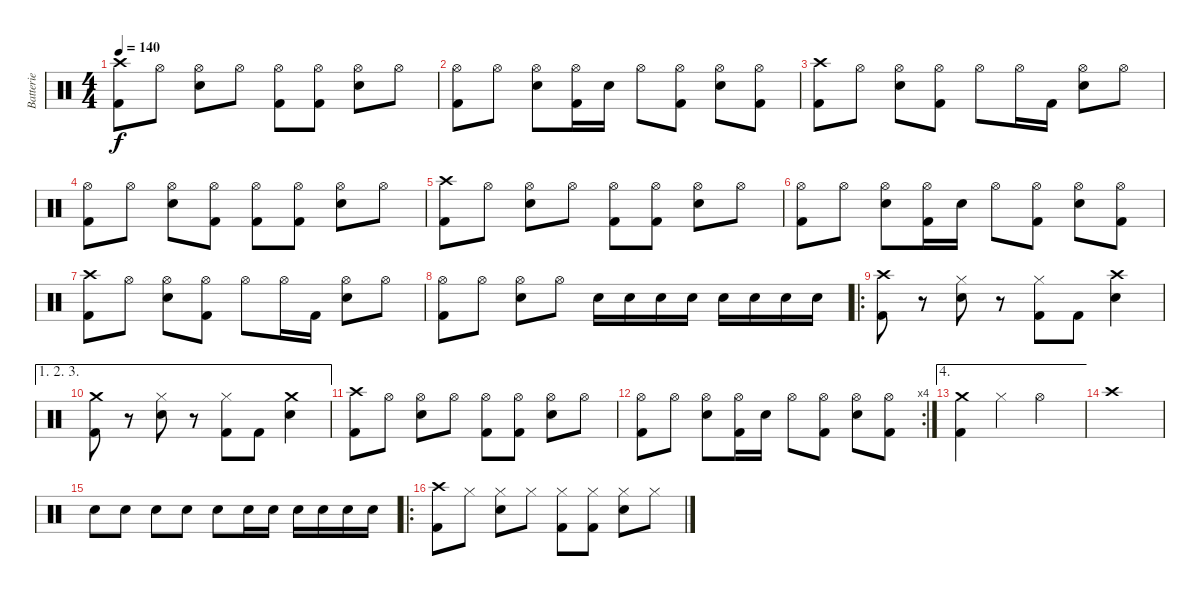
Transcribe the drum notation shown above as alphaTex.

\track ("Batterie" "Batterie") {instrument percussion}
\staff {score}
\articulation defaults
\ts (4 4)
\tempo 140
\clef neutral
\ks c
("Crash high (hit)" "Kick (hit) 2").8{dy f} "Hi-Hat (open)".8 ("Hi-Hat (open)" "Snare (hit) 2").8 "Hi-Hat (open)".8 ("Hi-Hat (open)" "Kick (hit) 2").8 ("Hi-Hat (open)" "Kick (hit) 2").8 ("Hi-Hat (open)" "Snare (hit) 2").8 "Hi-Hat (open)".8 |
("Hi-Hat (open)" "Kick (hit) 2").8 "Hi-Hat (open)".8 ("Hi-Hat (open)" "Snare (hit) 2").8 ("Hi-Hat (open)" "Kick (hit) 2").16 "Snare (hit) 2".16 "Hi-Hat (open)".8 ("Hi-Hat (open)" "Kick (hit) 2").8 ("Hi-Hat (open)" "Snare (hit) 2").8 ("Hi-Hat (open)" "Kick (hit) 2").8 |
("Crash high (hit)" "Kick (hit) 2").8 "Hi-Hat (open)".8 ("Hi-Hat (open)" "Snare (hit) 2").8 ("Hi-Hat (open)" "Kick (hit) 2").8 "Hi-Hat (open)".8 "Hi-Hat (open)".16 "Kick (hit) 2".16 ("Hi-Hat (open)" "Snare (hit) 2").8 "Hi-Hat (open)".8 |
("Hi-Hat (open)" "Kick (hit) 2").8 "Hi-Hat (open)".8 ("Hi-Hat (open)" "Snare (hit) 2").8 ("Hi-Hat (open)" "Kick (hit) 2").8 ("Hi-Hat (open)" "Kick (hit) 2").8 ("Hi-Hat (open)" "Kick (hit) 2").8 ("Hi-Hat (open)" "Snare (hit) 2").8 "Hi-Hat (open)".8 |
("Crash high (hit)" "Kick (hit) 2").8 "Hi-Hat (open)".8 ("Hi-Hat (open)" "Snare (hit) 2").8 "Hi-Hat (open)".8 ("Hi-Hat (open)" "Kick (hit) 2").8 ("Hi-Hat (open)" "Kick (hit) 2").8 ("Hi-Hat (open)" "Snare (hit) 2").8 "Hi-Hat (open)".8 |
("Hi-Hat (open)" "Kick (hit) 2").8 "Hi-Hat (open)".8 ("Hi-Hat (open)" "Snare (hit) 2").8 ("Hi-Hat (open)" "Kick (hit) 2").16 "Snare (hit) 2".16 "Hi-Hat (open)".8 ("Hi-Hat (open)" "Kick (hit) 2").8 ("Hi-Hat (open)" "Snare (hit) 2").8 ("Hi-Hat (open)" "Kick (hit) 2").8 |
("Crash high (hit)" "Kick (hit) 2").8 "Hi-Hat (open)".8 ("Hi-Hat (open)" "Snare (hit) 2").8 ("Hi-Hat (open)" "Kick (hit) 2").8 "Hi-Hat (open)".8 "Hi-Hat (open)".16 "Kick (hit) 2".16 ("Hi-Hat (open)" "Snare (hit) 2").8 "Hi-Hat (open)".8 |
("Hi-Hat (open)" "Kick (hit) 2").8 "Hi-Hat (open)".8 ("Hi-Hat (open)" "Snare (hit) 2").8 "Hi-Hat (open)".8 "Snare (hit) 2".16 "Snare (hit) 2".16 "Snare (hit) 2".16 "Snare (hit) 2".16 "Snare (hit) 2".16 "Snare (hit) 2".16 "Snare (hit) 2".16 "Snare (hit) 2".16 |
\ro
("Crash high (hit)" "Kick (hit) 2").8 r.8 ("Hi-Hat (closed)" "Snare (hit) 2").8 r.8 ("Hi-Hat (closed)" "Kick (hit) 2").8 "Kick (hit) 2".8 ("Crash high (hit)" "Snare (hit) 2").4 |
\ae (1 2 3)
("Crash medium (hit)" "Kick (hit) 2").8 r.8 ("Hi-Hat (closed)" "Snare (hit) 2").8 r.8 ("Hi-Hat (closed)" "Kick (hit) 2").8 "Kick (hit) 2".8 ("Crash medium (hit)" "Snare (hit) 2").4 |
("Crash high (hit)" "Kick (hit) 2").8 "Hi-Hat (open)".8 ("Hi-Hat (open)" "Snare (hit) 2").8 "Hi-Hat (open)".8 ("Hi-Hat (open)" "Kick (hit) 2").8 ("Hi-Hat (open)" "Kick (hit) 2").8 ("Hi-Hat (open)" "Snare (hit) 2").8 "Hi-Hat (open)".8 |
\rc 4
("Hi-Hat (open)" "Kick (hit) 2").8 "Hi-Hat (open)".8 ("Hi-Hat (open)" "Snare (hit) 2").8 ("Hi-Hat (open)" "Kick (hit) 2").16 "Snare (hit) 2".16 "Hi-Hat (open)".8 ("Hi-Hat (open)" "Kick (hit) 2").8 ("Hi-Hat (open)" "Snare (hit) 2").8 ("Hi-Hat (open)" "Kick (hit) 2").8 |
\ae 4
("Crash medium (hit)" "Kick (hit) 2").4 "Hi-Hat (closed)".4 "Hi-Hat (open)".2 |
"Crash high (hit)".1 |
"Snare (hit) 2".8 "Snare (hit) 2".8 "Snare (hit) 2".8 "Snare (hit) 2".8 "Snare (hit) 2".8 "Snare (hit) 2".16 "Snare (hit) 2".16 "Snare (hit) 2".16 "Snare (hit) 2".16 "Snare (hit) 2".16 "Snare (hit) 2".16 |
\ro
("Crash high (hit)" "Kick (hit) 2").8 "Hi-Hat (closed)".8 ("Hi-Hat (closed)" "Snare (hit) 2").8 "Hi-Hat (closed)".8 ("Hi-Hat (closed)" "Kick (hit) 2").8 ("Hi-Hat (closed)" "Kick (hit) 2").8 ("Hi-Hat (closed)" "Snare (hit) 2").8 "Hi-Hat (closed)".8
